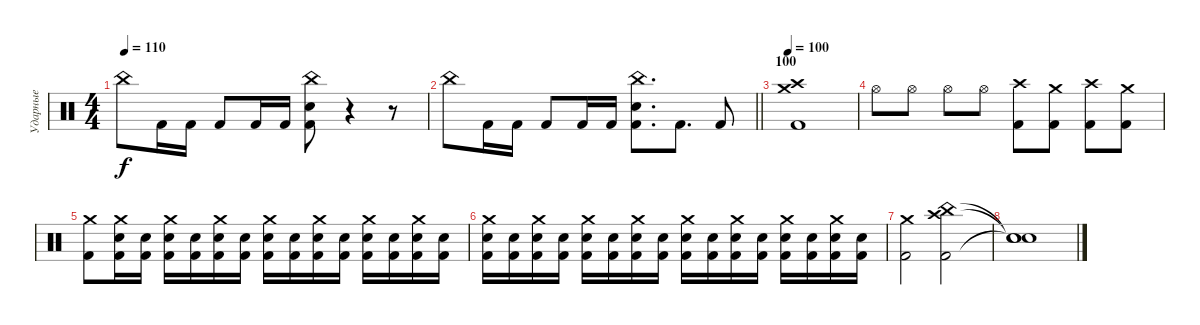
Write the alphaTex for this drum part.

\track ("Ударные" "Ударные") {instrument percussion}
\staff
\articulation defaults
\ts (4 4)
\tempo 110
\clef neutral
\ks c "China (hit)".8{dy f} "Kick (hit) 2".16 "Kick (hit) 2".16 "Kick (hit) 2".8 "Kick (hit) 2".16 "Kick (hit) 2".16
("China (hit)" "Electric Snare (hit)" "Kick (hit) 2").8 r.4 r.8 |
\barLineRight lightlight "China (hit)".8 "Kick (hit) 2".16 "Kick (hit) 2".16 "Kick (hit) 2".8 "Kick (hit) 2".16 "Kick (hit) 2".16
("China (hit)" "Electric Snare (hit)" "Kick (hit) 2").8{d} "Kick (hit) 2".8{d} "Kick (hit) 2".8 |
\section ("" "100")
\tempo 100
("Crash high (hit)" "Crash medium (hit)" "Kick (hit) 2").1 |
"Hi-Hat (open)".8 "Hi-Hat (open)".8 "Hi-Hat (open)".8 "Hi-Hat (open)".8 ("Crash high (hit)" "Kick (hit) 2").8 ("Crash medium (hit)" "Kick (hit) 2").8 ("Crash high (hit)" "Kick (hit) 2").8 ("Crash medium (hit)" "Kick (hit) 2").8 |
("Crash medium (hit)" "Kick (hit) 2").8 ("Crash medium (hit)" "Electric Snare (hit)" "Kick (hit) 2").16 ("Electric Snare (hit)" "Kick (hit) 2").16 ("Crash medium (hit)" "Electric Snare (hit)" "Kick (hit) 2").16 ("Electric Snare (hit)" "Kick (hit) 2").16 ("Crash medium (hit)" "Electric Snare (hit)" "Kick (hit) 2").16 ("Electric Snare (hit)" "Kick (hit) 2").16 ("Crash medium (hit)" "Electric Snare (hit)" "Kick (hit) 2").16 ("Electric Snare (hit)" "Kick (hit) 2").16 ("Crash medium (hit)" "Electric Snare (hit)" "Kick (hit) 2").16 ("Electric Snare (hit)" "Kick (hit) 2").16 ("Crash medium (hit)" "Electric Snare (hit)" "Kick (hit) 2").16 ("Electric Snare (hit)" "Kick (hit) 2").16 ("Crash medium (hit)" "Electric Snare (hit)" "Kick (hit) 2").16 ("Electric Snare (hit)" "Kick (hit) 2").16 |
("Crash medium (hit)" "Electric Snare (hit)" "Kick (hit) 2").16 ("Electric Snare (hit)" "Kick (hit) 2").16 ("Crash medium (hit)" "Electric Snare (hit)" "Kick (hit) 2").16 ("Electric Snare (hit)" "Kick (hit) 2").16 ("Crash medium (hit)" "Electric Snare (hit)" "Kick (hit) 2").16 ("Electric Snare (hit)" "Kick (hit) 2").16 ("Crash medium (hit)" "Electric Snare (hit)" "Kick (hit) 2").16 ("Electric Snare (hit)" "Kick (hit) 2").16 ("Crash medium (hit)" "Electric Snare (hit)" "Kick (hit) 2").16 ("Electric Snare (hit)" "Kick (hit) 2").16 ("Crash medium (hit)" "Electric Snare (hit)" "Kick (hit) 2").16 ("Electric Snare (hit)" "Kick (hit) 2").16 ("Crash medium (hit)" "Electric Snare (hit)" "Kick (hit) 2").16 ("Electric Snare (hit)" "Kick (hit) 2").16 ("Crash medium (hit)" "Electric Snare (hit)" "Kick (hit) 2").16 ("Electric Snare (hit)" "Kick (hit) 2").16 |
("Crash medium (hit)" "Kick (hit) 2").2 ("China (hit)" "Crash high (hit)" "Kick (hit) 2").2 |
("Snare (hit)"{t} "Snare (hit)"{t} "Snare (hit)"{t}).1
